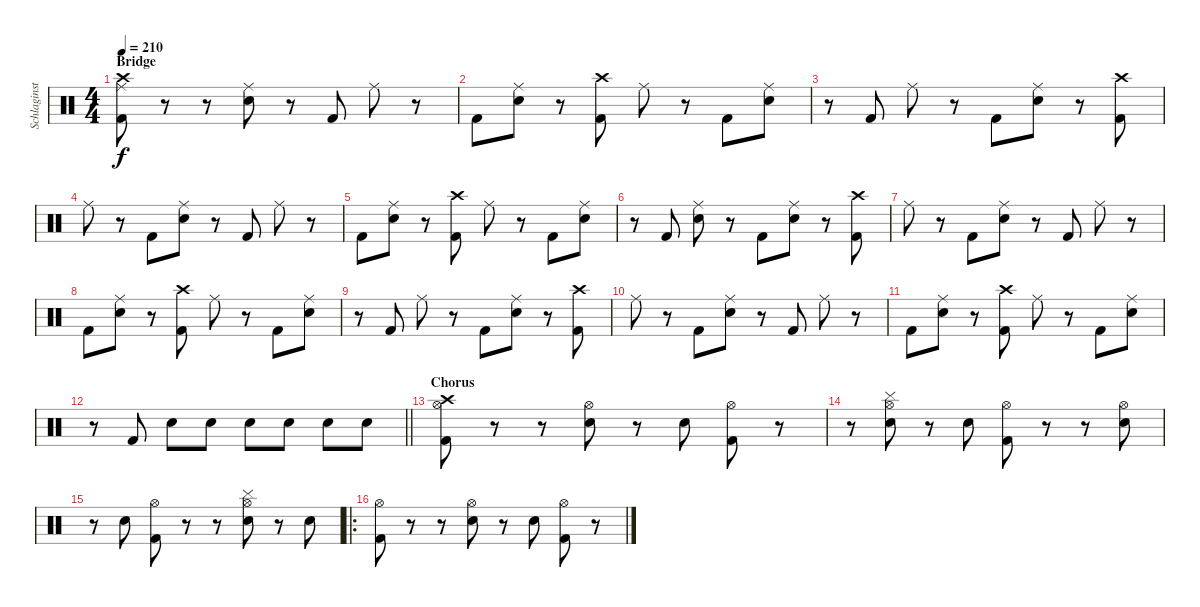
\track ("Schlaginstrumente - Auswahl" "Schlaginst") {instrument percussion}
\staff {score}
\articulation defaults
\ts (4 4)
\section ("" "Bridge")
\tempo 210
\clef neutral
\ks c
("Ride (middle)" "Crash high (hit)" "Kick (hit) 2").8{dy f} r.8 r.8 ("Ride (middle)" "Electric Snare (hit)").8 r.8 "Kick (hit) 2".8 "Ride (middle)".8 r.8 |
"Kick (hit) 2".8 ("Ride (middle)" "Electric Snare (hit)").8 r.8 ("Crash high (hit)" "Kick (hit) 2").8 "Ride (middle)".8 r.8 "Kick (hit) 2".8 ("Ride (middle)" "Electric Snare (hit)").8 |
r.8 "Kick (hit) 2".8 "Ride (middle)".8 r.8 "Kick (hit) 2".8 ("Ride (middle)" "Electric Snare (hit)").8 r.8 ("Crash high (hit)" "Kick (hit) 2").8 |
"Ride (middle)".8 r.8 "Kick (hit) 2".8 ("Ride (middle)" "Electric Snare (hit)").8 r.8 "Kick (hit) 2".8 "Ride (middle)".8 r.8 |
"Kick (hit) 2".8 ("Ride (middle)" "Electric Snare (hit)").8 r.8 ("Crash high (hit)" "Kick (hit) 2").8 "Ride (middle)".8 r.8 "Kick (hit) 2".8 ("Ride (middle)" "Electric Snare (hit)").8 |
r.8 "Kick (hit) 2".8 ("Ride (middle)" "Electric Snare (hit)").8 r.8 "Kick (hit) 2".8 ("Ride (middle)" "Electric Snare (hit)").8 r.8 ("Crash high (hit)" "Kick (hit) 2").8 |
"Ride (middle)".8 r.8 "Kick (hit) 2".8 ("Ride (middle)" "Electric Snare (hit)").8 r.8 "Kick (hit) 2".8 "Ride (middle)".8 r.8 |
"Kick (hit) 2".8 ("Ride (middle)" "Electric Snare (hit)").8 r.8 ("Crash high (hit)" "Kick (hit) 2").8 "Ride (middle)".8 r.8 "Kick (hit) 2".8 ("Ride (middle)" "Electric Snare (hit)").8 |
r.8 "Kick (hit) 2".8 "Ride (middle)".8 r.8 "Kick (hit) 2".8 ("Ride (middle)" "Electric Snare (hit)").8 r.8 ("Crash high (hit)" "Kick (hit) 2").8 |
"Ride (middle)".8 r.8 "Kick (hit) 2".8 ("Ride (middle)" "Electric Snare (hit)").8 r.8 "Kick (hit) 2".8 "Ride (middle)".8 r.8 |
"Kick (hit) 2".8 ("Ride (middle)" "Electric Snare (hit)").8 r.8 ("Crash high (hit)" "Kick (hit) 2").8 "Ride (middle)".8 r.8 "Kick (hit) 2".8 ("Ride (middle)" "Electric Snare (hit)").8 |
\barLineRight lightlight
r.8 "Kick (hit) 2".8 "Electric Snare (hit)".8 "Electric Snare (hit)".8 "Electric Snare (hit)".8 "Electric Snare (hit)".8 "Electric Snare (hit)".8 "Electric Snare (hit)".8 |
\section ("" "Chorus")
("Crash high (hit)" "Hi-Hat (open)" "Kick (hit) 2").8 r.8 r.8 ("Hi-Hat (open)" "Electric Snare (hit)").8 r.8 "Electric Snare (hit)".8 ("Hi-Hat (open)" "Kick (hit) 2").8 r.8 |
r.8 ("Cymbal (hit)" "Hi-Hat (open)" "Electric Snare (hit)").8 r.8 "Electric Snare (hit)".8 ("Hi-Hat (open)" "Kick (hit) 2").8 r.8 r.8 ("Hi-Hat (open)" "Electric Snare (hit)").8 |
r.8 "Electric Snare (hit)".8 ("Hi-Hat (open)" "Kick (hit) 2").8 r.8 r.8 ("Cymbal (hit)" "Hi-Hat (open)" "Electric Snare (hit)").8 r.8 "Electric Snare (hit)".8 |
\ro
("Hi-Hat (open)" "Kick (hit) 2").8 r.8 r.8 ("Hi-Hat (open)" "Electric Snare (hit)").8 r.8 "Electric Snare (hit)".8 ("Hi-Hat (open)" "Kick (hit) 2").8 r.8
